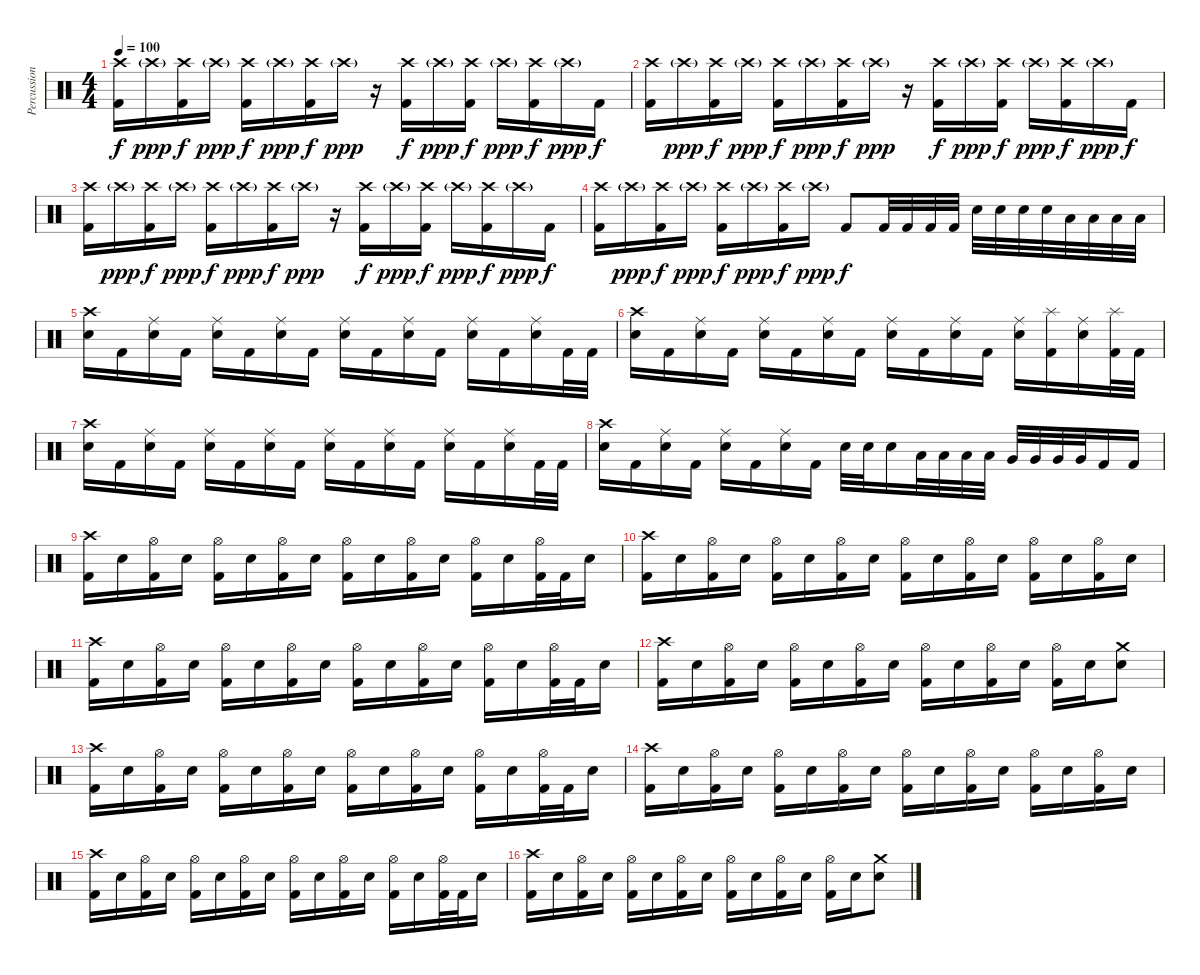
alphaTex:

\track ("Percussion" "Percussion") {instrument percussion}
\staff {score}
\articulation defaults
\ts (4 4)
\tempo 100
\clef neutral
\ks c
("Crash high (hit)" "Kick (hit) 2").16{dy f} "Crash high (hit)"{g}.16{dy ppp} ("Crash high (hit)" "Kick (hit) 2").16{dy f} "Crash high (hit)"{g}.16{dy ppp} ("Crash high (hit)" "Kick (hit) 2").16{dy f} "Crash high (hit)"{g}.16{dy ppp} ("Crash high (hit)" "Kick (hit) 2").16{dy f} "Crash high (hit)"{g}.16{dy ppp} r.16 ("Crash high (hit)" "Kick (hit) 2").16{dy f} "Crash high (hit)"{g}.16{dy ppp} ("Crash high (hit)" "Kick (hit) 2").16{dy f} "Crash high (hit)"{g}.16{dy ppp} ("Crash high (hit)" "Kick (hit) 2").16{dy f} "Crash high (hit)"{g}.16{dy ppp} "Kick (hit) 2".16{dy f} |
("Crash high (hit)" "Kick (hit) 2").16 "Crash high (hit)"{g}.16{dy ppp} ("Crash high (hit)" "Kick (hit) 2").16{dy f} "Crash high (hit)"{g}.16{dy ppp} ("Crash high (hit)" "Kick (hit) 2").16{dy f} "Crash high (hit)"{g}.16{dy ppp} ("Crash high (hit)" "Kick (hit) 2").16{dy f} "Crash high (hit)"{g}.16{dy ppp} r.16 ("Crash high (hit)" "Kick (hit) 2").16{dy f} "Crash high (hit)"{g}.16{dy ppp} ("Crash high (hit)" "Kick (hit) 2").16{dy f} "Crash high (hit)"{g}.16{dy ppp} ("Crash high (hit)" "Kick (hit) 2").16{dy f} "Crash high (hit)"{g}.16{dy ppp} "Kick (hit) 2".16{dy f} |
("Crash high (hit)" "Kick (hit) 2").16 "Crash high (hit)"{g}.16{dy ppp} ("Crash high (hit)" "Kick (hit) 2").16{dy f} "Crash high (hit)"{g}.16{dy ppp} ("Crash high (hit)" "Kick (hit) 2").16{dy f} "Crash high (hit)"{g}.16{dy ppp} ("Crash high (hit)" "Kick (hit) 2").16{dy f} "Crash high (hit)"{g}.16{dy ppp} r.16 ("Crash high (hit)" "Kick (hit) 2").16{dy f} "Crash high (hit)"{g}.16{dy ppp} ("Crash high (hit)" "Kick (hit) 2").16{dy f} "Crash high (hit)"{g}.16{dy ppp} ("Crash high (hit)" "Kick (hit) 2").16{dy f} "Crash high (hit)"{g}.16{dy ppp} "Kick (hit) 2".16{dy f} |
("Crash high (hit)" "Kick (hit) 2").16 "Crash high (hit)"{g}.16{dy ppp} ("Crash high (hit)" "Kick (hit) 2").16{dy f} "Crash high (hit)"{g}.16{dy ppp} ("Crash high (hit)" "Kick (hit) 2").16{dy f} "Crash high (hit)"{g}.16{dy ppp} ("Crash high (hit)" "Kick (hit) 2").16{dy f} "Crash high (hit)"{g}.16{dy ppp} "Kick (hit) 2".8{dy f} "Kick (hit) 2".32 "Kick (hit) 2".32 "Kick (hit) 2".32 "Kick (hit) 2".32 "Electric Snare (hit)".32 "Electric Snare (hit)".32 "Electric Snare (hit)".32 "Electric Snare (hit)".32 "Low Tom (hit)".32 "Low Tom (hit)".32 "Low Tom (hit)".32 "Low Tom (hit)".32 |
("Crash high (hit)" "Electric Snare (hit)").16 "Kick (hit) 2".16 ("Ride (middle)" "Electric Snare (hit)").16 "Kick (hit) 2".16 ("Ride (middle)" "Electric Snare (hit)").16 "Kick (hit) 2".16 ("Ride (middle)" "Electric Snare (hit)").16 "Kick (hit) 2".16 ("Ride (middle)" "Electric Snare (hit)").16 "Kick (hit) 2".16 ("Ride (middle)" "Electric Snare (hit)").16 "Kick (hit) 2".16 ("Ride (middle)" "Electric Snare (hit)").16 "Kick (hit) 2".16 ("Ride (middle)" "Electric Snare (hit)").16 "Kick (hit) 2".32 "Kick (hit) 2".32 |
("Crash high (hit)" "Electric Snare (hit)").16 "Kick (hit) 2".16 ("Ride (middle)" "Electric Snare (hit)").16 "Kick (hit) 2".16 ("Ride (middle)" "Electric Snare (hit)").16 "Kick (hit) 2".16 ("Ride (middle)" "Electric Snare (hit)").16 "Kick (hit) 2".16 ("Ride (middle)" "Electric Snare (hit)").16 "Kick (hit) 2".16 ("Ride (middle)" "Electric Snare (hit)").16 "Kick (hit) 2".16 ("Ride (middle)" "Electric Snare (hit)").16 ("Splash (hit)" "Kick (hit) 2").16 ("Ride (middle)" "Electric Snare (hit)").16 ("Splash (hit)" "Kick (hit) 2").32 "Kick (hit) 2".32 |
("Crash high (hit)" "Electric Snare (hit)").16 "Kick (hit) 2".16 ("Ride (middle)" "Electric Snare (hit)").16 "Kick (hit) 2".16 ("Ride (middle)" "Electric Snare (hit)").16 "Kick (hit) 2".16 ("Ride (middle)" "Electric Snare (hit)").16 "Kick (hit) 2".16 ("Ride (middle)" "Electric Snare (hit)").16 "Kick (hit) 2".16 ("Ride (middle)" "Electric Snare (hit)").16 "Kick (hit) 2".16 ("Ride (middle)" "Electric Snare (hit)").16 "Kick (hit) 2".16 ("Ride (middle)" "Electric Snare (hit)").16 "Kick (hit) 2".32 "Kick (hit) 2".32 |
("Crash high (hit)" "Electric Snare (hit)").16 "Kick (hit) 2".16 ("Ride (middle)" "Electric Snare (hit)").16 "Kick (hit) 2".16 ("Ride (middle)" "Electric Snare (hit)").16 "Kick (hit) 2".16 ("Ride (middle)" "Electric Snare (hit)").16 "Kick (hit) 2".16 "Electric Snare (hit)".32 "Electric Snare (hit)".32 "Electric Snare (hit)".16 "Low Tom (hit)".32 "Low Tom (hit)".32 "Low Tom (hit)".32 "Low Tom (hit)".32 "Very Low Tom (hit)".32 "Very Low Tom (hit)".32 "Very Low Tom (hit)".32 "Very Low Tom (hit)".32 "Kick (hit) 2".16 "Kick (hit) 2".16 |
("Crash high (hit)" "Kick (hit) 2").16 "Electric Snare (hit)".16 ("Hi-Hat (open)" "Kick (hit) 2").16 "Electric Snare (hit)".16 ("Hi-Hat (open)" "Kick (hit) 2").16 "Electric Snare (hit)".16 ("Hi-Hat (open)" "Kick (hit) 2").16 "Electric Snare (hit)".16 ("Hi-Hat (open)" "Kick (hit) 2").16 "Electric Snare (hit)".16 ("Hi-Hat (open)" "Kick (hit) 2").16 "Electric Snare (hit)".16 ("Hi-Hat (open)" "Kick (hit) 2").16 "Electric Snare (hit)".16 ("Hi-Hat (open)" "Kick (hit) 2").32 "Kick (hit) 2".32 "Electric Snare (hit)".16 |
("Crash high (hit)" "Kick (hit) 2").16 "Electric Snare (hit)".16 ("Hi-Hat (open)" "Kick (hit) 2").16 "Electric Snare (hit)".16 ("Hi-Hat (open)" "Kick (hit) 2").16 "Electric Snare (hit)".16 ("Hi-Hat (open)" "Kick (hit) 2").16 "Electric Snare (hit)".16 ("Hi-Hat (open)" "Kick (hit) 2").16 "Electric Snare (hit)".16 ("Hi-Hat (open)" "Kick (hit) 2").16 "Electric Snare (hit)".16 ("Hi-Hat (open)" "Kick (hit) 2").16 "Electric Snare (hit)".16 ("Hi-Hat (open)" "Kick (hit) 2").16 "Electric Snare (hit)".16 |
("Crash high (hit)" "Kick (hit) 2").16 "Electric Snare (hit)".16 ("Hi-Hat (open)" "Kick (hit) 2").16 "Electric Snare (hit)".16 ("Hi-Hat (open)" "Kick (hit) 2").16 "Electric Snare (hit)".16 ("Hi-Hat (open)" "Kick (hit) 2").16 "Electric Snare (hit)".16 ("Hi-Hat (open)" "Kick (hit) 2").16 "Electric Snare (hit)".16 ("Hi-Hat (open)" "Kick (hit) 2").16 "Electric Snare (hit)".16 ("Hi-Hat (open)" "Kick (hit) 2").16 "Electric Snare (hit)".16 ("Hi-Hat (open)" "Kick (hit) 2").32 "Kick (hit) 2".32 "Electric Snare (hit)".16 |
("Crash high (hit)" "Kick (hit) 2").16 "Electric Snare (hit)".16 ("Hi-Hat (open)" "Kick (hit) 2").16 "Electric Snare (hit)".16 ("Hi-Hat (open)" "Kick (hit) 2").16 "Electric Snare (hit)".16 ("Hi-Hat (open)" "Kick (hit) 2").16 "Electric Snare (hit)".16 ("Hi-Hat (open)" "Kick (hit) 2").16 "Electric Snare (hit)".16 ("Hi-Hat (open)" "Kick (hit) 2").16 "Electric Snare (hit)".16 ("Hi-Hat (open)" "Kick (hit) 2").16 "Electric Snare (hit)".16 ("Crash medium (hit)" "Electric Snare (hit)").8 |
("Crash high (hit)" "Kick (hit) 2").16 "Electric Snare (hit)".16 ("Hi-Hat (open)" "Kick (hit) 2").16 "Electric Snare (hit)".16 ("Hi-Hat (open)" "Kick (hit) 2").16 "Electric Snare (hit)".16 ("Hi-Hat (open)" "Kick (hit) 2").16 "Electric Snare (hit)".16 ("Hi-Hat (open)" "Kick (hit) 2").16 "Electric Snare (hit)".16 ("Hi-Hat (open)" "Kick (hit) 2").16 "Electric Snare (hit)".16 ("Hi-Hat (open)" "Kick (hit) 2").16 "Electric Snare (hit)".16 ("Hi-Hat (open)" "Kick (hit) 2").32 "Kick (hit) 2".32 "Electric Snare (hit)".16 |
("Crash high (hit)" "Kick (hit) 2").16 "Electric Snare (hit)".16 ("Hi-Hat (open)" "Kick (hit) 2").16 "Electric Snare (hit)".16 ("Hi-Hat (open)" "Kick (hit) 2").16 "Electric Snare (hit)".16 ("Hi-Hat (open)" "Kick (hit) 2").16 "Electric Snare (hit)".16 ("Hi-Hat (open)" "Kick (hit) 2").16 "Electric Snare (hit)".16 ("Hi-Hat (open)" "Kick (hit) 2").16 "Electric Snare (hit)".16 ("Hi-Hat (open)" "Kick (hit) 2").16 "Electric Snare (hit)".16 ("Hi-Hat (open)" "Kick (hit) 2").16 "Electric Snare (hit)".16 |
("Crash high (hit)" "Kick (hit) 2").16 "Electric Snare (hit)".16 ("Hi-Hat (open)" "Kick (hit) 2").16 "Electric Snare (hit)".16 ("Hi-Hat (open)" "Kick (hit) 2").16 "Electric Snare (hit)".16 ("Hi-Hat (open)" "Kick (hit) 2").16 "Electric Snare (hit)".16 ("Hi-Hat (open)" "Kick (hit) 2").16 "Electric Snare (hit)".16 ("Hi-Hat (open)" "Kick (hit) 2").16 "Electric Snare (hit)".16 ("Hi-Hat (open)" "Kick (hit) 2").16 "Electric Snare (hit)".16 ("Hi-Hat (open)" "Kick (hit) 2").32 "Kick (hit) 2".32 "Electric Snare (hit)".16 |
("Crash high (hit)" "Kick (hit) 2").16 "Electric Snare (hit)".16 ("Hi-Hat (open)" "Kick (hit) 2").16 "Electric Snare (hit)".16 ("Hi-Hat (open)" "Kick (hit) 2").16 "Electric Snare (hit)".16 ("Hi-Hat (open)" "Kick (hit) 2").16 "Electric Snare (hit)".16 ("Hi-Hat (open)" "Kick (hit) 2").16 "Electric Snare (hit)".16 ("Hi-Hat (open)" "Kick (hit) 2").16 "Electric Snare (hit)".16 ("Hi-Hat (open)" "Kick (hit) 2").16 "Electric Snare (hit)".16 ("Crash medium (hit)" "Electric Snare (hit)").8
